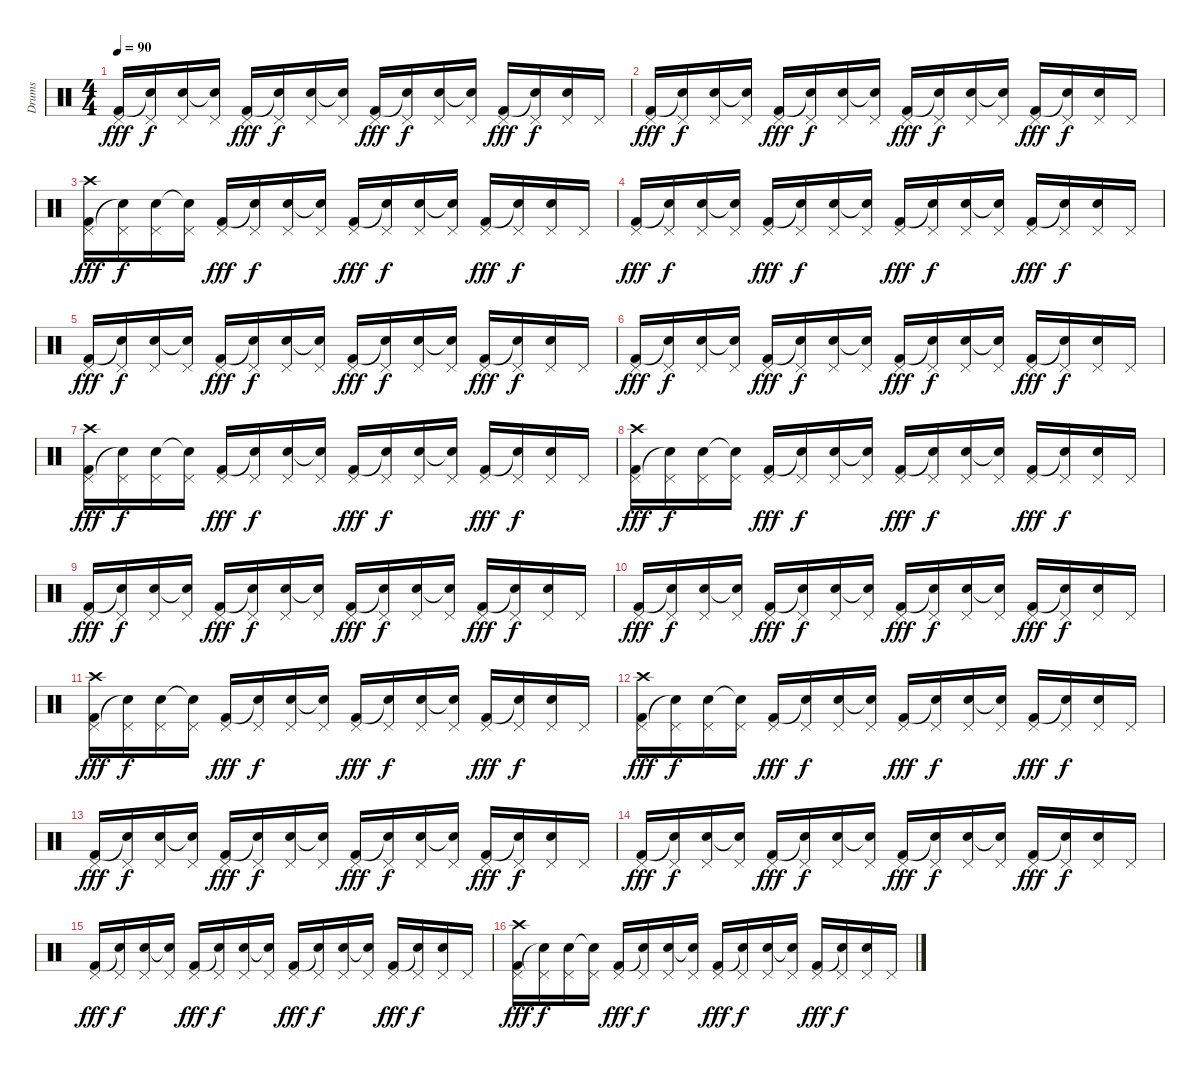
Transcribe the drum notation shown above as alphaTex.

\track ("Drums" "Drums") {instrument percussion}
\staff {score}
\articulation defaults
\ts (4 4)
\tempo 90
\clef neutral
\ks c
("Pedal Hi-Hat (hit)" "Kick (hit) 2").16{dy fff} ("Pedal Hi-Hat (hit)" "Snare (hit)"{t}).16{dy f} ("Pedal Hi-Hat (hit)" "Electric Snare (hit)").16 ("Pedal Hi-Hat (hit)" "Snare (hit)"{t}).16 ("Pedal Hi-Hat (hit)" "Kick (hit) 2").16{dy fff} ("Pedal Hi-Hat (hit)" "Snare (hit)"{t}).16{dy f} ("Pedal Hi-Hat (hit)" "Electric Snare (hit)").16 ("Pedal Hi-Hat (hit)" "Snare (hit)"{t}).16 ("Pedal Hi-Hat (hit)" "Kick (hit) 2").16{dy fff} ("Pedal Hi-Hat (hit)" "Snare (hit)"{t}).16{dy f} ("Pedal Hi-Hat (hit)" "Electric Snare (hit)").16 ("Pedal Hi-Hat (hit)" "Snare (hit)"{t}).16 ("Pedal Hi-Hat (hit)" "Kick (hit) 2").16{dy fff} ("Pedal Hi-Hat (hit)" "Snare (hit)"{t}).16{dy f} ("Pedal Hi-Hat (hit)" "Electric Snare (hit)").16 "Pedal Hi-Hat (hit)".16 |
("Pedal Hi-Hat (hit)" "Kick (hit) 2").16{dy fff} ("Pedal Hi-Hat (hit)" "Snare (hit)"{t}).16{dy f} ("Pedal Hi-Hat (hit)" "Electric Snare (hit)").16 ("Pedal Hi-Hat (hit)" "Snare (hit)"{t}).16 ("Pedal Hi-Hat (hit)" "Kick (hit) 2").16{dy fff} ("Pedal Hi-Hat (hit)" "Snare (hit)"{t}).16{dy f} ("Pedal Hi-Hat (hit)" "Electric Snare (hit)").16 ("Pedal Hi-Hat (hit)" "Snare (hit)"{t}).16 ("Pedal Hi-Hat (hit)" "Kick (hit) 2").16{dy fff} ("Pedal Hi-Hat (hit)" "Snare (hit)"{t}).16{dy f} ("Pedal Hi-Hat (hit)" "Electric Snare (hit)").16 ("Pedal Hi-Hat (hit)" "Snare (hit)"{t}).16 ("Pedal Hi-Hat (hit)" "Kick (hit) 2").16{dy fff} ("Pedal Hi-Hat (hit)" "Snare (hit)"{t}).16{dy f} ("Pedal Hi-Hat (hit)" "Electric Snare (hit)").16 "Pedal Hi-Hat (hit)".16 |
("Crash high (hit)" "Pedal Hi-Hat (hit)" "Kick (hit) 2").16{dy fff} ("Pedal Hi-Hat (hit)" "Snare (hit)"{t}).16{dy f} ("Pedal Hi-Hat (hit)" "Electric Snare (hit)").16 ("Pedal Hi-Hat (hit)" "Snare (hit)"{t}).16 ("Pedal Hi-Hat (hit)" "Kick (hit) 2").16{dy fff} ("Pedal Hi-Hat (hit)" "Snare (hit)"{t}).16{dy f} ("Pedal Hi-Hat (hit)" "Electric Snare (hit)").16 ("Pedal Hi-Hat (hit)" "Snare (hit)"{t}).16 ("Pedal Hi-Hat (hit)" "Kick (hit) 2").16{dy fff} ("Pedal Hi-Hat (hit)" "Snare (hit)"{t}).16{dy f} ("Pedal Hi-Hat (hit)" "Electric Snare (hit)").16 ("Pedal Hi-Hat (hit)" "Snare (hit)"{t}).16 ("Pedal Hi-Hat (hit)" "Kick (hit) 2").16{dy fff} ("Pedal Hi-Hat (hit)" "Snare (hit)"{t}).16{dy f} ("Pedal Hi-Hat (hit)" "Electric Snare (hit)").16 "Pedal Hi-Hat (hit)".16 |
("Pedal Hi-Hat (hit)" "Kick (hit) 2").16{dy fff} ("Pedal Hi-Hat (hit)" "Snare (hit)"{t}).16{dy f} ("Pedal Hi-Hat (hit)" "Electric Snare (hit)").16 ("Pedal Hi-Hat (hit)" "Snare (hit)"{t}).16 ("Pedal Hi-Hat (hit)" "Kick (hit) 2").16{dy fff} ("Pedal Hi-Hat (hit)" "Snare (hit)"{t}).16{dy f} ("Pedal Hi-Hat (hit)" "Electric Snare (hit)").16 ("Pedal Hi-Hat (hit)" "Snare (hit)"{t}).16 ("Pedal Hi-Hat (hit)" "Kick (hit) 2").16{dy fff} ("Pedal Hi-Hat (hit)" "Snare (hit)"{t}).16{dy f} ("Pedal Hi-Hat (hit)" "Electric Snare (hit)").16 ("Pedal Hi-Hat (hit)" "Snare (hit)"{t}).16 ("Pedal Hi-Hat (hit)" "Kick (hit) 2").16{dy fff} ("Pedal Hi-Hat (hit)" "Snare (hit)"{t}).16{dy f} ("Pedal Hi-Hat (hit)" "Electric Snare (hit)").16 "Pedal Hi-Hat (hit)".16 |
("Pedal Hi-Hat (hit)" "Kick (hit) 2").16{dy fff} ("Pedal Hi-Hat (hit)" "Snare (hit)"{t}).16{dy f} ("Pedal Hi-Hat (hit)" "Electric Snare (hit)").16 ("Pedal Hi-Hat (hit)" "Snare (hit)"{t}).16 ("Pedal Hi-Hat (hit)" "Kick (hit) 2").16{dy fff} ("Pedal Hi-Hat (hit)" "Snare (hit)"{t}).16{dy f} ("Pedal Hi-Hat (hit)" "Electric Snare (hit)").16 ("Pedal Hi-Hat (hit)" "Snare (hit)"{t}).16 ("Pedal Hi-Hat (hit)" "Kick (hit) 2").16{dy fff} ("Pedal Hi-Hat (hit)" "Snare (hit)"{t}).16{dy f} ("Pedal Hi-Hat (hit)" "Electric Snare (hit)").16 ("Pedal Hi-Hat (hit)" "Snare (hit)"{t}).16 ("Pedal Hi-Hat (hit)" "Kick (hit) 2").16{dy fff} ("Pedal Hi-Hat (hit)" "Snare (hit)"{t}).16{dy f} ("Pedal Hi-Hat (hit)" "Electric Snare (hit)").16 "Pedal Hi-Hat (hit)".16 |
("Pedal Hi-Hat (hit)" "Kick (hit) 2").16{dy fff} ("Pedal Hi-Hat (hit)" "Snare (hit)"{t}).16{dy f} ("Pedal Hi-Hat (hit)" "Electric Snare (hit)").16 ("Pedal Hi-Hat (hit)" "Snare (hit)"{t}).16 ("Pedal Hi-Hat (hit)" "Kick (hit) 2").16{dy fff} ("Pedal Hi-Hat (hit)" "Snare (hit)"{t}).16{dy f} ("Pedal Hi-Hat (hit)" "Electric Snare (hit)").16 ("Pedal Hi-Hat (hit)" "Snare (hit)"{t}).16 ("Pedal Hi-Hat (hit)" "Kick (hit) 2").16{dy fff} ("Pedal Hi-Hat (hit)" "Snare (hit)"{t}).16{dy f} ("Pedal Hi-Hat (hit)" "Electric Snare (hit)").16 ("Pedal Hi-Hat (hit)" "Snare (hit)"{t}).16 ("Pedal Hi-Hat (hit)" "Kick (hit) 2").16{dy fff} ("Pedal Hi-Hat (hit)" "Snare (hit)"{t}).16{dy f} ("Pedal Hi-Hat (hit)" "Electric Snare (hit)").16 "Pedal Hi-Hat (hit)".16 |
("Crash high (hit)" "Pedal Hi-Hat (hit)" "Kick (hit) 2").16{dy fff} ("Pedal Hi-Hat (hit)" "Snare (hit)"{t}).16{dy f} ("Pedal Hi-Hat (hit)" "Electric Snare (hit)").16 ("Pedal Hi-Hat (hit)" "Snare (hit)"{t}).16 ("Pedal Hi-Hat (hit)" "Kick (hit) 2").16{dy fff} ("Pedal Hi-Hat (hit)" "Snare (hit)"{t}).16{dy f} ("Pedal Hi-Hat (hit)" "Electric Snare (hit)").16 ("Pedal Hi-Hat (hit)" "Snare (hit)"{t}).16 ("Pedal Hi-Hat (hit)" "Kick (hit) 2").16{dy fff} ("Pedal Hi-Hat (hit)" "Snare (hit)"{t}).16{dy f} ("Pedal Hi-Hat (hit)" "Electric Snare (hit)").16 ("Pedal Hi-Hat (hit)" "Snare (hit)"{t}).16 ("Pedal Hi-Hat (hit)" "Kick (hit) 2").16{dy fff} ("Pedal Hi-Hat (hit)" "Snare (hit)"{t}).16{dy f} ("Pedal Hi-Hat (hit)" "Electric Snare (hit)").16 "Pedal Hi-Hat (hit)".16 |
("Crash high (hit)" "Pedal Hi-Hat (hit)" "Kick (hit) 2").16{dy fff} ("Pedal Hi-Hat (hit)" "Snare (hit)"{t}).16{dy f} ("Pedal Hi-Hat (hit)" "Electric Snare (hit)").16 ("Pedal Hi-Hat (hit)" "Snare (hit)"{t}).16 ("Pedal Hi-Hat (hit)" "Kick (hit) 2").16{dy fff} ("Pedal Hi-Hat (hit)" "Snare (hit)"{t}).16{dy f} ("Pedal Hi-Hat (hit)" "Electric Snare (hit)").16 ("Pedal Hi-Hat (hit)" "Snare (hit)"{t}).16 ("Pedal Hi-Hat (hit)" "Kick (hit) 2").16{dy fff} ("Pedal Hi-Hat (hit)" "Snare (hit)"{t}).16{dy f} ("Pedal Hi-Hat (hit)" "Electric Snare (hit)").16 ("Pedal Hi-Hat (hit)" "Snare (hit)"{t}).16 ("Pedal Hi-Hat (hit)" "Kick (hit) 2").16{dy fff} ("Pedal Hi-Hat (hit)" "Snare (hit)"{t}).16{dy f} ("Pedal Hi-Hat (hit)" "Electric Snare (hit)").16 "Pedal Hi-Hat (hit)".16 |
("Pedal Hi-Hat (hit)" "Kick (hit) 2").16{dy fff} ("Pedal Hi-Hat (hit)" "Snare (hit)"{t}).16{dy f} ("Pedal Hi-Hat (hit)" "Electric Snare (hit)").16 ("Pedal Hi-Hat (hit)" "Snare (hit)"{t}).16 ("Pedal Hi-Hat (hit)" "Kick (hit) 2").16{dy fff} ("Pedal Hi-Hat (hit)" "Snare (hit)"{t}).16{dy f} ("Pedal Hi-Hat (hit)" "Electric Snare (hit)").16 ("Pedal Hi-Hat (hit)" "Snare (hit)"{t}).16 ("Pedal Hi-Hat (hit)" "Kick (hit) 2").16{dy fff} ("Pedal Hi-Hat (hit)" "Snare (hit)"{t}).16{dy f} ("Pedal Hi-Hat (hit)" "Electric Snare (hit)").16 ("Pedal Hi-Hat (hit)" "Snare (hit)"{t}).16 ("Pedal Hi-Hat (hit)" "Kick (hit) 2").16{dy fff} ("Pedal Hi-Hat (hit)" "Snare (hit)"{t}).16{dy f} ("Pedal Hi-Hat (hit)" "Electric Snare (hit)").16 "Pedal Hi-Hat (hit)".16 |
("Pedal Hi-Hat (hit)" "Kick (hit) 2").16{dy fff} ("Pedal Hi-Hat (hit)" "Snare (hit)"{t}).16{dy f} ("Pedal Hi-Hat (hit)" "Electric Snare (hit)").16 ("Pedal Hi-Hat (hit)" "Snare (hit)"{t}).16 ("Pedal Hi-Hat (hit)" "Kick (hit) 2").16{dy fff} ("Pedal Hi-Hat (hit)" "Snare (hit)"{t}).16{dy f} ("Pedal Hi-Hat (hit)" "Electric Snare (hit)").16 ("Pedal Hi-Hat (hit)" "Snare (hit)"{t}).16 ("Pedal Hi-Hat (hit)" "Kick (hit) 2").16{dy fff} ("Pedal Hi-Hat (hit)" "Snare (hit)"{t}).16{dy f} ("Pedal Hi-Hat (hit)" "Electric Snare (hit)").16 ("Pedal Hi-Hat (hit)" "Snare (hit)"{t}).16 ("Pedal Hi-Hat (hit)" "Kick (hit) 2").16{dy fff} ("Pedal Hi-Hat (hit)" "Snare (hit)"{t}).16{dy f} ("Pedal Hi-Hat (hit)" "Electric Snare (hit)").16 "Pedal Hi-Hat (hit)".16 |
("Crash high (hit)" "Pedal Hi-Hat (hit)" "Kick (hit) 2").16{dy fff} ("Pedal Hi-Hat (hit)" "Snare (hit)"{t}).16{dy f} ("Pedal Hi-Hat (hit)" "Electric Snare (hit)").16 ("Pedal Hi-Hat (hit)" "Snare (hit)"{t}).16 ("Pedal Hi-Hat (hit)" "Kick (hit) 2").16{dy fff} ("Pedal Hi-Hat (hit)" "Snare (hit)"{t}).16{dy f} ("Pedal Hi-Hat (hit)" "Electric Snare (hit)").16 ("Pedal Hi-Hat (hit)" "Snare (hit)"{t}).16 ("Pedal Hi-Hat (hit)" "Kick (hit) 2").16{dy fff} ("Pedal Hi-Hat (hit)" "Snare (hit)"{t}).16{dy f} ("Pedal Hi-Hat (hit)" "Electric Snare (hit)").16 ("Pedal Hi-Hat (hit)" "Snare (hit)"{t}).16 ("Pedal Hi-Hat (hit)" "Kick (hit) 2").16{dy fff} ("Pedal Hi-Hat (hit)" "Snare (hit)"{t}).16{dy f} ("Pedal Hi-Hat (hit)" "Electric Snare (hit)").16 "Pedal Hi-Hat (hit)".16 |
("Crash high (hit)" "Pedal Hi-Hat (hit)" "Kick (hit) 2").16{dy fff} ("Pedal Hi-Hat (hit)" "Snare (hit)"{t}).16{dy f} ("Pedal Hi-Hat (hit)" "Electric Snare (hit)").16 ("Pedal Hi-Hat (hit)" "Snare (hit)"{t}).16 ("Pedal Hi-Hat (hit)" "Kick (hit) 2").16{dy fff} ("Pedal Hi-Hat (hit)" "Snare (hit)"{t}).16{dy f} ("Pedal Hi-Hat (hit)" "Electric Snare (hit)").16 ("Pedal Hi-Hat (hit)" "Snare (hit)"{t}).16 ("Pedal Hi-Hat (hit)" "Kick (hit) 2").16{dy fff} ("Pedal Hi-Hat (hit)" "Snare (hit)"{t}).16{dy f} ("Pedal Hi-Hat (hit)" "Electric Snare (hit)").16 ("Pedal Hi-Hat (hit)" "Snare (hit)"{t}).16 ("Pedal Hi-Hat (hit)" "Kick (hit) 2").16{dy fff} ("Pedal Hi-Hat (hit)" "Snare (hit)"{t}).16{dy f} ("Pedal Hi-Hat (hit)" "Electric Snare (hit)").16 "Pedal Hi-Hat (hit)".16 |
("Pedal Hi-Hat (hit)" "Kick (hit) 2").16{dy fff} ("Pedal Hi-Hat (hit)" "Snare (hit)"{t}).16{dy f} ("Pedal Hi-Hat (hit)" "Electric Snare (hit)").16 ("Pedal Hi-Hat (hit)" "Snare (hit)"{t}).16 ("Pedal Hi-Hat (hit)" "Kick (hit) 2").16{dy fff} ("Pedal Hi-Hat (hit)" "Snare (hit)"{t}).16{dy f} ("Pedal Hi-Hat (hit)" "Electric Snare (hit)").16 ("Pedal Hi-Hat (hit)" "Snare (hit)"{t}).16 ("Pedal Hi-Hat (hit)" "Kick (hit) 2").16{dy fff} ("Pedal Hi-Hat (hit)" "Snare (hit)"{t}).16{dy f} ("Pedal Hi-Hat (hit)" "Electric Snare (hit)").16 ("Pedal Hi-Hat (hit)" "Snare (hit)"{t}).16 ("Pedal Hi-Hat (hit)" "Kick (hit) 2").16{dy fff} ("Pedal Hi-Hat (hit)" "Snare (hit)"{t}).16{dy f} ("Pedal Hi-Hat (hit)" "Electric Snare (hit)").16 "Pedal Hi-Hat (hit)".16 |
("Pedal Hi-Hat (hit)" "Kick (hit) 2").16{dy fff} ("Pedal Hi-Hat (hit)" "Snare (hit)"{t}).16{dy f} ("Pedal Hi-Hat (hit)" "Electric Snare (hit)").16 ("Pedal Hi-Hat (hit)" "Snare (hit)"{t}).16 ("Pedal Hi-Hat (hit)" "Kick (hit) 2").16{dy fff} ("Pedal Hi-Hat (hit)" "Snare (hit)"{t}).16{dy f} ("Pedal Hi-Hat (hit)" "Electric Snare (hit)").16 ("Pedal Hi-Hat (hit)" "Snare (hit)"{t}).16 ("Pedal Hi-Hat (hit)" "Kick (hit) 2").16{dy fff} ("Pedal Hi-Hat (hit)" "Snare (hit)"{t}).16{dy f} ("Pedal Hi-Hat (hit)" "Electric Snare (hit)").16 ("Pedal Hi-Hat (hit)" "Snare (hit)"{t}).16 ("Pedal Hi-Hat (hit)" "Kick (hit) 2").16{dy fff} ("Pedal Hi-Hat (hit)" "Snare (hit)"{t}).16{dy f} ("Pedal Hi-Hat (hit)" "Electric Snare (hit)").16 "Pedal Hi-Hat (hit)".16 |
("Pedal Hi-Hat (hit)" "Kick (hit) 2").16{dy fff} ("Pedal Hi-Hat (hit)" "Snare (hit)"{t}).16{dy f} ("Pedal Hi-Hat (hit)" "Electric Snare (hit)").16 ("Pedal Hi-Hat (hit)" "Snare (hit)"{t}).16 ("Pedal Hi-Hat (hit)" "Kick (hit) 2").16{dy fff} ("Pedal Hi-Hat (hit)" "Snare (hit)"{t}).16{dy f} ("Pedal Hi-Hat (hit)" "Electric Snare (hit)").16 ("Pedal Hi-Hat (hit)" "Snare (hit)"{t}).16 ("Pedal Hi-Hat (hit)" "Kick (hit) 2").16{dy fff} ("Pedal Hi-Hat (hit)" "Snare (hit)"{t}).16{dy f} ("Pedal Hi-Hat (hit)" "Electric Snare (hit)").16 ("Pedal Hi-Hat (hit)" "Snare (hit)"{t}).16 ("Pedal Hi-Hat (hit)" "Kick (hit) 2").16{dy fff} ("Pedal Hi-Hat (hit)" "Snare (hit)"{t}).16{dy f} ("Pedal Hi-Hat (hit)" "Electric Snare (hit)").16 "Pedal Hi-Hat (hit)".16 |
("Crash high (hit)" "Pedal Hi-Hat (hit)" "Kick (hit) 2").16{dy fff} ("Pedal Hi-Hat (hit)" "Snare (hit)"{t}).16{dy f} ("Pedal Hi-Hat (hit)" "Electric Snare (hit)").16 ("Pedal Hi-Hat (hit)" "Snare (hit)"{t}).16 ("Pedal Hi-Hat (hit)" "Kick (hit) 2").16{dy fff} ("Pedal Hi-Hat (hit)" "Snare (hit)"{t}).16{dy f} ("Pedal Hi-Hat (hit)" "Electric Snare (hit)").16 ("Pedal Hi-Hat (hit)" "Snare (hit)"{t}).16 ("Pedal Hi-Hat (hit)" "Kick (hit) 2").16{dy fff} ("Pedal Hi-Hat (hit)" "Snare (hit)"{t}).16{dy f} ("Pedal Hi-Hat (hit)" "Electric Snare (hit)").16 ("Pedal Hi-Hat (hit)" "Snare (hit)"{t}).16 ("Pedal Hi-Hat (hit)" "Kick (hit) 2").16{dy fff} ("Pedal Hi-Hat (hit)" "Snare (hit)"{t}).16{dy f} ("Pedal Hi-Hat (hit)" "Electric Snare (hit)").16 "Pedal Hi-Hat (hit)".16
